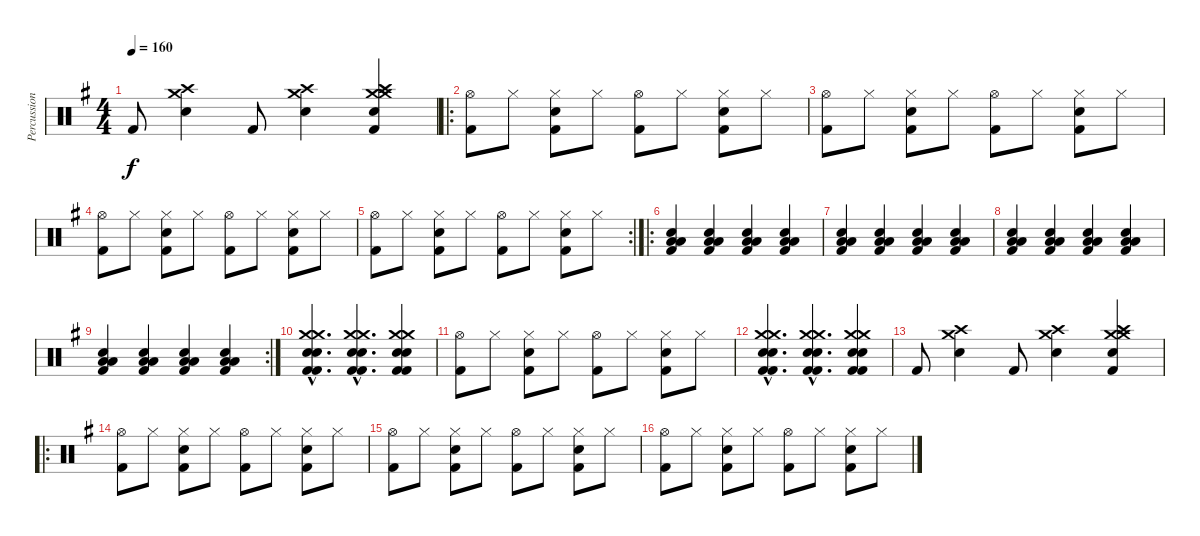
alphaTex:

\track ("Percussions" "Percussion") {instrument percussion}
\staff {score}
\articulation defaults
\ts (4 4)
\tempo 160
\clef neutral
\ks g "Kick (hit) 2".8{dy f}
("Crash medium (hit)" "Crash high (hit)" "Snare (hit) 2").4 "Kick (hit) 2".8 ("Crash medium (hit)" "Crash high (hit)" "Snare (hit) 2").4 ("Crash medium (hit)" "Crash medium (hit)" "Crash high (hit)" "Snare (hit) 2" "Kick (hit) 2").4 |
\ro
("Hi-Hat (open)" "Kick (hit) 2").8 "Hi-Hat (closed)".8 ("Hi-Hat (closed)" "Snare (hit) 2" "Kick (hit) 2").8 "Hi-Hat (closed)".8 ("Hi-Hat (open)" "Kick (hit) 2").8 "Hi-Hat (closed)".8 ("Hi-Hat (closed)" "Snare (hit) 2" "Kick (hit) 2").8 "Hi-Hat (closed)".8 |
("Hi-Hat (open)" "Kick (hit) 2").8 "Hi-Hat (closed)".8 ("Hi-Hat (closed)" "Snare (hit) 2" "Kick (hit) 2").8 "Hi-Hat (closed)".8 ("Hi-Hat (open)" "Kick (hit) 2").8 "Hi-Hat (closed)".8 ("Hi-Hat (closed)" "Snare (hit) 2" "Kick (hit) 2").8 "Hi-Hat (closed)".8 |
("Hi-Hat (open)" "Kick (hit) 2").8 "Hi-Hat (closed)".8 ("Hi-Hat (closed)" "Snare (hit) 2" "Kick (hit) 2").8 "Hi-Hat (closed)".8 ("Hi-Hat (open)" "Kick (hit) 2").8 "Hi-Hat (closed)".8 ("Hi-Hat (closed)" "Snare (hit) 2" "Kick (hit) 2").8 "Hi-Hat (closed)".8 |
\rc 2
("Hi-Hat (open)" "Kick (hit) 2").8 "Hi-Hat (closed)".8 ("Hi-Hat (closed)" "Snare (hit) 2" "Kick (hit) 2").8 "Hi-Hat (closed)".8 ("Hi-Hat (open)" "Kick (hit) 2").8 "Hi-Hat (closed)".8 ("Hi-Hat (closed)" "Snare (hit) 2" "Kick (hit) 2").8 "Hi-Hat (closed)".8 |
\ro
("Low Tom (hit)" "Snare (hit) 2" "Low Tom (hit)" "Kick (hit) 2").4 ("Low Tom (hit)" "Snare (hit) 2" "Low Tom (hit)" "Kick (hit) 2").4 ("Low Tom (hit)" "Snare (hit) 2" "Low Tom (hit)" "Kick (hit) 2").4 ("Low Tom (hit)" "Snare (hit) 2" "Low Tom (hit)" "Kick (hit) 2").4 |
("Low Tom (hit)" "Snare (hit) 2" "Low Tom (hit)" "Kick (hit) 2").4 ("Low Tom (hit)" "Snare (hit) 2" "Low Tom (hit)" "Kick (hit) 2").4 ("Low Tom (hit)" "Snare (hit) 2" "Low Tom (hit)" "Kick (hit) 2").4 ("Low Tom (hit)" "Snare (hit) 2" "Low Tom (hit)" "Kick (hit) 2").4 |
("Low Tom (hit)" "Snare (hit) 2" "Low Tom (hit)" "Kick (hit) 2").4 ("Low Tom (hit)" "Snare (hit) 2" "Low Tom (hit)" "Kick (hit) 2").4 ("Low Tom (hit)" "Snare (hit) 2" "Low Tom (hit)" "Kick (hit) 2").4 ("Low Tom (hit)" "Snare (hit) 2" "Low Tom (hit)" "Kick (hit) 2").4 |
\rc 2
("Low Tom (hit)" "Snare (hit) 2" "Low Tom (hit)" "Kick (hit) 2").4 ("Low Tom (hit)" "Snare (hit) 2" "Low Tom (hit)" "Kick (hit) 2").4 ("Low Tom (hit)" "Snare (hit) 2" "Low Tom (hit)" "Kick (hit) 2").4 ("Low Tom (hit)" "Snare (hit) 2" "Low Tom (hit)" "Kick (hit) 2").4 |
("Crash medium (hit)"{hac} "Crash medium (hit)"{hac} "Snare (hit) 2"{hac} "Snare (hit) 2"{hac} "Kick (hit) 2"{hac} "Kick (hit) 2"{hac}).4{d} ("Crash medium (hit)"{hac} "Crash medium (hit)"{hac} "Snare (hit) 2"{hac} "Snare (hit) 2"{hac} "Kick (hit) 2"{hac} "Kick (hit) 2"{hac}).4{d} ("Crash medium (hit)" "Crash medium (hit)" "Snare (hit) 2" "Snare (hit) 2" "Kick (hit) 2" "Kick (hit) 2").4 |
("Hi-Hat (open)" "Kick (hit) 2").8 "Hi-Hat (closed)".8 ("Hi-Hat (closed)" "Snare (hit) 2" "Kick (hit) 2").8 "Hi-Hat (closed)".8 ("Hi-Hat (open)" "Kick (hit) 2").8 "Hi-Hat (closed)".8 ("Hi-Hat (closed)" "Snare (hit) 2" "Kick (hit) 2").8 "Hi-Hat (closed)".8 |
("Crash medium (hit)"{hac} "Crash medium (hit)"{hac} "Snare (hit) 2"{hac} "Snare (hit) 2"{hac} "Kick (hit) 2"{hac} "Kick (hit) 2"{hac}).4{d} ("Crash medium (hit)"{hac} "Crash medium (hit)"{hac} "Snare (hit) 2"{hac} "Snare (hit) 2"{hac} "Kick (hit) 2"{hac} "Kick (hit) 2"{hac}).4{d} ("Crash medium (hit)" "Crash medium (hit)" "Snare (hit) 2" "Snare (hit) 2" "Kick (hit) 2" "Kick (hit) 2").4 |
"Kick (hit) 2".8 ("Crash medium (hit)" "Crash high (hit)" "Snare (hit) 2").4 "Kick (hit) 2".8 ("Crash medium (hit)" "Crash high (hit)" "Snare (hit) 2").4 ("Crash medium (hit)" "Crash medium (hit)" "Crash high (hit)" "Snare (hit) 2" "Kick (hit) 2").4 |
\ro
("Hi-Hat (open)" "Kick (hit) 2").8 "Hi-Hat (closed)".8 ("Hi-Hat (closed)" "Snare (hit) 2" "Kick (hit) 2").8 "Hi-Hat (closed)".8 ("Hi-Hat (open)" "Kick (hit) 2").8 "Hi-Hat (closed)".8 ("Hi-Hat (closed)" "Snare (hit) 2" "Kick (hit) 2").8 "Hi-Hat (closed)".8 |
("Hi-Hat (open)" "Kick (hit) 2").8 "Hi-Hat (closed)".8 ("Hi-Hat (closed)" "Snare (hit) 2" "Kick (hit) 2").8 "Hi-Hat (closed)".8 ("Hi-Hat (open)" "Kick (hit) 2").8 "Hi-Hat (closed)".8 ("Hi-Hat (closed)" "Snare (hit) 2" "Kick (hit) 2").8 "Hi-Hat (closed)".8 |
("Hi-Hat (open)" "Kick (hit) 2").8 "Hi-Hat (closed)".8 ("Hi-Hat (closed)" "Snare (hit) 2" "Kick (hit) 2").8 "Hi-Hat (closed)".8 ("Hi-Hat (open)" "Kick (hit) 2").8 "Hi-Hat (closed)".8 ("Hi-Hat (closed)" "Snare (hit) 2" "Kick (hit) 2").8 "Hi-Hat (closed)".8
